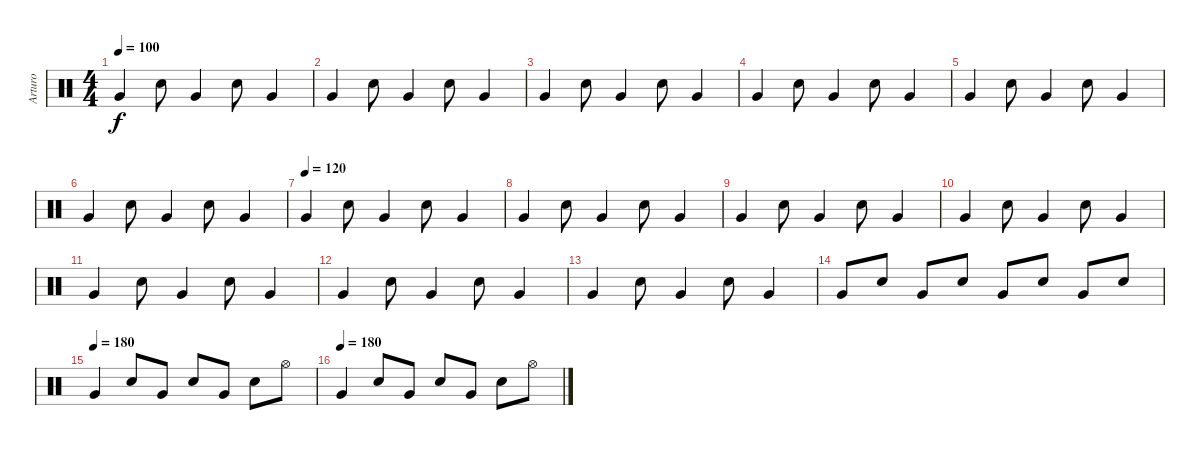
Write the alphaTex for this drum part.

\track ("Arturo" "Arturo") {instrument percussion}
\staff {score}
\articulation defaults
\ts (4 4)
\tempo 100
\clef neutral
\ks c "Very Low Tom (hit)".4{dy f} "Electric Snare (hit)".8 "Very Low Tom (hit)".4 "Electric Snare (hit)".8 "Very Low Tom (hit)".4
|
"Very Low Tom (hit)".4 "Electric Snare (hit)".8 "Very Low Tom (hit)".4 "Electric Snare (hit)".8 "Very Low Tom (hit)".4 |
"Very Low Tom (hit)".4 "Electric Snare (hit)".8 "Very Low Tom (hit)".4 "Electric Snare (hit)".8 "Very Low Tom (hit)".4 |
"Very Low Tom (hit)".4 "Electric Snare (hit)".8 "Very Low Tom (hit)".4 "Electric Snare (hit)".8 "Very Low Tom (hit)".4 |
"Very Low Tom (hit)".4 "Electric Snare (hit)".8 "Very Low Tom (hit)".4 "Electric Snare (hit)".8 "Very Low Tom (hit)".4 |
"Very Low Tom (hit)".4 "Electric Snare (hit)".8 "Very Low Tom (hit)".4 "Electric Snare (hit)".8 "Very Low Tom (hit)".4 |
\tempo (120)
"Very Low Tom (hit)".4 "Electric Snare (hit)".8 "Very Low Tom (hit)".4 "Electric Snare (hit)".8 "Very Low Tom (hit)".4 |
"Very Low Tom (hit)".4 "Electric Snare (hit)".8 "Very Low Tom (hit)".4 "Electric Snare (hit)".8 "Very Low Tom (hit)".4 |
"Very Low Tom (hit)".4 "Electric Snare (hit)".8 "Very Low Tom (hit)".4 "Electric Snare (hit)".8 "Very Low Tom (hit)".4 |
"Very Low Tom (hit)".4 "Electric Snare (hit)".8 "Very Low Tom (hit)".4 "Electric Snare (hit)".8 "Very Low Tom (hit)".4 |
"Very Low Tom (hit)".4 "Electric Snare (hit)".8 "Very Low Tom (hit)".4 "Electric Snare (hit)".8 "Very Low Tom (hit)".4 |
"Very Low Tom (hit)".4 "Electric Snare (hit)".8 "Very Low Tom (hit)".4 "Electric Snare (hit)".8 "Very Low Tom (hit)".4 |
"Very Low Tom (hit)".4 "Electric Snare (hit)".8 "Very Low Tom (hit)".4 "Electric Snare (hit)".8 "Very Low Tom (hit)".4 |
"Very Low Tom (hit)".8 "Electric Snare (hit)".8 "Very Low Tom (hit)".8 "Electric Snare (hit)".8 "Very Low Tom (hit)".8 "Electric Snare (hit)".8 "Very Low Tom (hit)".8 "Electric Snare (hit)".8 |
\tempo (180)
"Very Low Tom (hit)".4 "Electric Snare (hit)".8 "Very Low Tom (hit)".8 "Electric Snare (hit)".8 "Very Low Tom (hit)".8 "Electric Snare (hit)".8 "Hi-Hat (open)".8 |
\tempo (180)
"Very Low Tom (hit)".4 "Electric Snare (hit)".8 "Very Low Tom (hit)".8 "Electric Snare (hit)".8 "Very Low Tom (hit)".8 "Electric Snare (hit)".8 "Hi-Hat (open)".8
